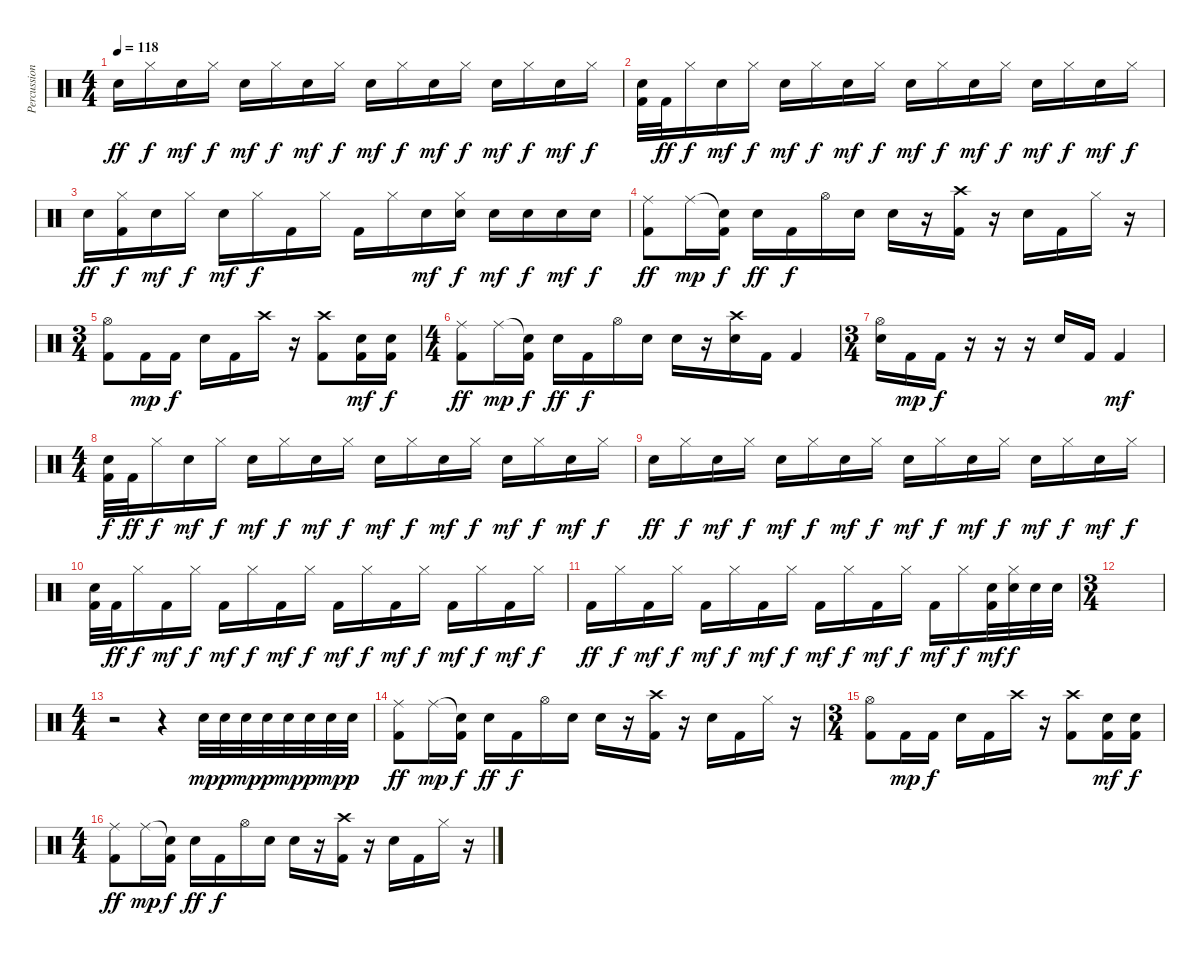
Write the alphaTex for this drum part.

\track ("Percussion" "Percussion") {instrument percussion}
\staff {score}
\articulation defaults
\ts (4 4)
\tempo 118
\clef neutral
\ks c "Snare (hit) 2".16{dy ff} "Hi-Hat (closed)".16{dy f} "Snare (hit) 2".16{dy mf} "Hi-Hat (closed)".16{dy f} "Snare (hit) 2".16{dy mf} "Hi-Hat (closed)".16{dy f} "Snare (hit) 2".16{dy mf} "Hi-Hat (closed)".16{dy f} "Snare (hit) 2".16{dy mf} "Hi-Hat (closed)".16{dy f} "Snare (hit) 2".16{dy mf} "Hi-Hat (closed)".16{dy f} "Snare (hit) 2".16{dy mf} "Hi-Hat (closed)".16{dy f} "Snare (hit) 2".16{dy mf} "Hi-Hat (closed)".16{dy f}
|
("Snare (hit) 2" "Kick (hit) 2").32 "Kick (hit) 2".32{dy ff} "Hi-Hat (closed)".16{dy f} "Snare (hit) 2".16{dy mf} "Hi-Hat (closed)".16{dy f} "Snare (hit) 2".16{dy mf} "Hi-Hat (closed)".16{dy f} "Snare (hit) 2".16{dy mf} "Hi-Hat (closed)".16{dy f} "Snare (hit) 2".16{dy mf} "Hi-Hat (closed)".16{dy f} "Snare (hit) 2".16{dy mf} "Hi-Hat (closed)".16{dy f} "Snare (hit) 2".16{dy mf} "Hi-Hat (closed)".16{dy f} "Snare (hit) 2".16{dy mf} "Hi-Hat (closed)".16{dy f} |
"Snare (hit) 2".16{dy ff} ("Hi-Hat (closed)" "Kick (hit) 2").16{dy f} "Snare (hit) 2".16{dy mf} "Hi-Hat (closed)".16{dy f} "Snare (hit) 2".16{dy mf} "Hi-Hat (closed)".16{dy f} "Kick (hit) 2".16 "Hi-Hat (closed)".16 "Kick (hit) 2".16 "Hi-Hat (closed)".16 "Snare (hit) 2".16{dy mf} ("Hi-Hat (closed)" "Snare (hit) 2").16{dy f} "Snare (hit) 2".16{dy mf} "Snare (hit) 2".16{dy f} "Snare (hit) 2".16{dy mf} "Snare (hit) 2".16{dy f} |
("Ride (middle)" "Kick (hit) 2").8{dy ff} "Ride (middle)".16{dy mp} ("Snare (hit)"{t} "Kick (hit) 2").16{dy f} "Snare (hit) 2".16{dy ff} "Kick (hit) 2".16{dy f} "Hi-Hat (open)".16 "Snare (hit) 2".16 "Snare (hit) 2".16 r.16 ("Crash high (hit)" "Kick (hit) 2").16 r.16 "Snare (hit) 2".16 "Kick (hit) 2".16 "Hi-Hat (closed)".16 r.16 |
\ts (3 4)
("Hi-Hat (open)" "Kick (hit) 2").8 "Kick (hit) 2".16{dy mp} "Kick (hit) 2".16{dy f} "Snare (hit) 2".16 "Kick (hit) 2".16 "Crash high (hit)".16 r.16 ("Crash high (hit)" "Kick (hit) 2").8 ("Snare (hit) 2" "Kick (hit) 2").16{dy mf} ("Snare (hit) 2" "Kick (hit) 2").16{dy f} |
\ts (4 4)
("Ride (middle)" "Kick (hit) 2").8{dy ff} "Ride (middle)".16{dy mp} ("Snare (hit)"{t} "Kick (hit) 2").16{dy f} "Snare (hit) 2".16{dy ff} "Kick (hit) 2".16{dy f} "Hi-Hat (open)".16 "Snare (hit) 2".16 "Snare (hit) 2".16 r.16 ("Crash high (hit)" "Snare (hit) 2").16 "Kick (hit) 2".16 "Kick (hit) 2".4 |
\ts (3 4)
("Hi-Hat (open)" "Snare (hit) 2").16 "Kick (hit) 2".16{dy mp} "Kick (hit) 2".16{dy f} r.16 r.16 r.16 "Snare (hit) 2".16 "Kick (hit) 2".16 "Kick (hit) 2".4{dy mf} |
\ts (4 4)
("Snare (hit) 2" "Kick (hit) 2").32{dy f} "Kick (hit) 2".32{dy ff} "Hi-Hat (closed)".16{dy f} "Snare (hit) 2".16{dy mf} "Hi-Hat (closed)".16{dy f} "Snare (hit) 2".16{dy mf} "Hi-Hat (closed)".16{dy f} "Snare (hit) 2".16{dy mf} "Hi-Hat (closed)".16{dy f} "Snare (hit) 2".16{dy mf} "Hi-Hat (closed)".16{dy f} "Snare (hit) 2".16{dy mf} "Hi-Hat (closed)".16{dy f} "Snare (hit) 2".16{dy mf} "Hi-Hat (closed)".16{dy f} "Snare (hit) 2".16{dy mf} "Hi-Hat (closed)".16{dy f} |
"Snare (hit) 2".16{dy ff} "Hi-Hat (closed)".16{dy f} "Snare (hit) 2".16{dy mf} "Hi-Hat (closed)".16{dy f} "Snare (hit) 2".16{dy mf} "Hi-Hat (closed)".16{dy f} "Snare (hit) 2".16{dy mf} "Hi-Hat (closed)".16{dy f} "Snare (hit) 2".16{dy mf} "Hi-Hat (closed)".16{dy f} "Snare (hit) 2".16{dy mf} "Hi-Hat (closed)".16{dy f} "Snare (hit) 2".16{dy mf} "Hi-Hat (closed)".16{dy f} "Snare (hit) 2".16{dy mf} "Hi-Hat (closed)".16{dy f} |
("Snare (hit) 2" "Kick (hit) 2").32 "Kick (hit) 2".32{dy ff} "Hi-Hat (closed)".16{dy f} "Kick (hit) 2".16{dy mf} "Hi-Hat (closed)".16{dy f} "Kick (hit) 2".16{dy mf} "Hi-Hat (closed)".16{dy f} "Kick (hit) 2".16{dy mf} "Hi-Hat (closed)".16{dy f} "Kick (hit) 2".16{dy mf} "Hi-Hat (closed)".16{dy f} "Kick (hit) 2".16{dy mf} "Hi-Hat (closed)".16{dy f} "Kick (hit) 2".16{dy mf} "Hi-Hat (closed)".16{dy f} "Kick (hit) 2".16{dy mf} "Hi-Hat (closed)".16{dy f} |
"Kick (hit) 2".16{dy ff} "Hi-Hat (closed)".16{dy f} "Kick (hit) 2".16{dy mf} "Hi-Hat (closed)".16{dy f} "Kick (hit) 2".16{dy mf} "Hi-Hat (closed)".16{dy f} "Kick (hit) 2".16{dy mf} "Hi-Hat (closed)".16{dy f} "Kick (hit) 2".16{dy mf} "Hi-Hat (closed)".16{dy f} "Kick (hit) 2".16{dy mf} "Hi-Hat (closed)".16{dy f} "Kick (hit) 2".16{dy mf} "Hi-Hat (closed)".16{dy f} ("Snare (hit) 2" "Kick (hit) 2").32{dy mf} ("Hi-Hat (closed)" "Snare (hit) 2").32{dy f} "Snare (hit) 2".32 "Snare (hit) 2".32 |
\ts (3 4)
|
\ts (4 4)
r.2 r.4 "Snare (hit) 2".32{dy mp} "Snare (hit) 2".32{dy p} "Snare (hit) 2".32{dy mp} "Snare (hit) 2".32{dy p} "Snare (hit) 2".32{dy mp} "Snare (hit) 2".32{dy p} "Snare (hit) 2".32{dy mp} "Snare (hit) 2".32{dy p} |
("Ride (middle)" "Kick (hit) 2").8{dy ff} "Ride (middle)".16{dy mp} ("Snare (hit)"{t} "Kick (hit) 2").16{dy f} "Snare (hit) 2".16{dy ff} "Kick (hit) 2".16{dy f} "Hi-Hat (open)".16 "Snare (hit) 2".16 "Snare (hit) 2".16 r.16 ("Crash high (hit)" "Kick (hit) 2").16 r.16 "Snare (hit) 2".16 "Kick (hit) 2".16 "Hi-Hat (closed)".16 r.16 |
\ts (3 4)
("Hi-Hat (open)" "Kick (hit) 2").8 "Kick (hit) 2".16{dy mp} "Kick (hit) 2".16{dy f} "Snare (hit) 2".16 "Kick (hit) 2".16 "Crash high (hit)".16 r.16 ("Crash high (hit)" "Kick (hit) 2").8 ("Snare (hit) 2" "Kick (hit) 2").16{dy mf} ("Snare (hit) 2" "Kick (hit) 2").16{dy f} |
\ts (4 4)
("Ride (middle)" "Kick (hit) 2").8{dy ff} "Ride (middle)".16{dy mp} ("Snare (hit)"{t} "Kick (hit) 2").16{dy f} "Snare (hit) 2".16{dy ff} "Kick (hit) 2".16{dy f} "Hi-Hat (open)".16 "Snare (hit) 2".16 "Snare (hit) 2".16 r.16 ("Crash high (hit)" "Kick (hit) 2").16 r.16 "Snare (hit) 2".16 "Kick (hit) 2".16 "Hi-Hat (closed)".16 r.16
